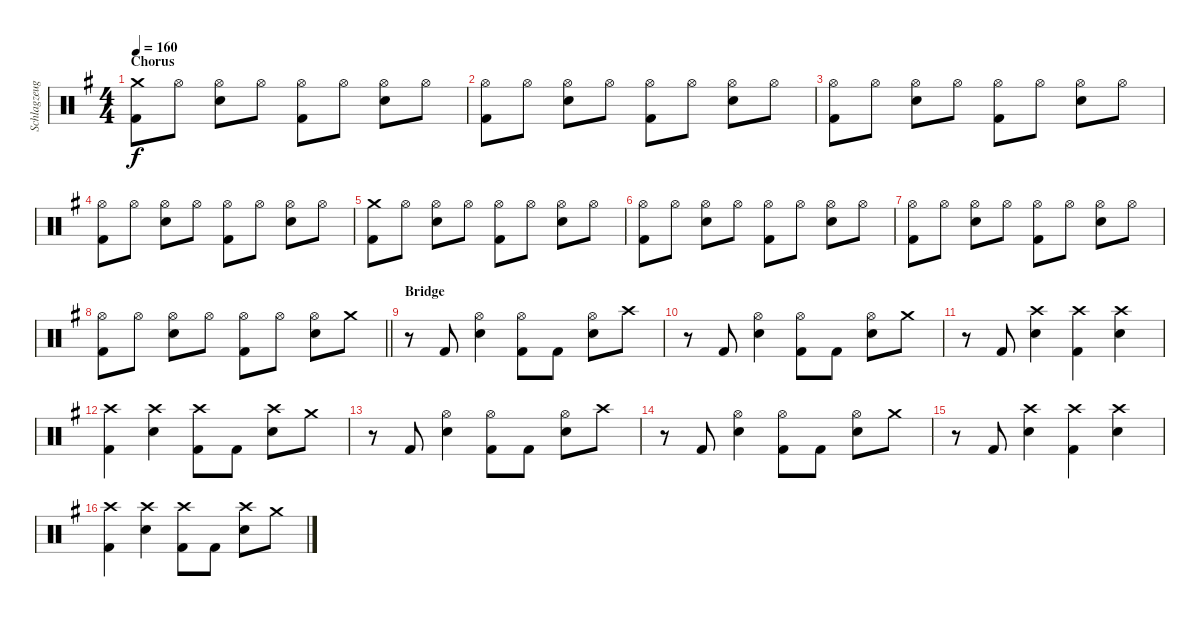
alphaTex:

\track ("Schlagzeug" "Schlagzeug") {instrument percussion}
\staff {score}
\articulation defaults
\ts (4 4)
\section ("" "Chorus")
\tempo 160
\clef neutral
\ks g
("Crash medium (hit)" "Kick (hit) 2").8{dy f} "Hi-Hat (open)".8 ("Hi-Hat (open)" "Snare (hit) 2").8 "Hi-Hat (open)".8 ("Hi-Hat (open)" "Kick (hit) 2").8 "Hi-Hat (open)".8 ("Hi-Hat (open)" "Snare (hit) 2").8 "Hi-Hat (open)".8 |
("Hi-Hat (open)" "Kick (hit) 2").8 "Hi-Hat (open)".8 ("Hi-Hat (open)" "Snare (hit) 2").8 "Hi-Hat (open)".8 ("Hi-Hat (open)" "Kick (hit) 2").8 "Hi-Hat (open)".8 ("Hi-Hat (open)" "Snare (hit) 2").8 "Hi-Hat (open)".8 |
("Hi-Hat (open)" "Kick (hit) 2").8 "Hi-Hat (open)".8 ("Hi-Hat (open)" "Snare (hit) 2").8 "Hi-Hat (open)".8 ("Hi-Hat (open)" "Kick (hit) 2").8 "Hi-Hat (open)".8 ("Hi-Hat (open)" "Snare (hit) 2").8 "Hi-Hat (open)".8 |
("Hi-Hat (open)" "Kick (hit) 2").8 "Hi-Hat (open)".8 ("Hi-Hat (open)" "Snare (hit) 2").8 "Hi-Hat (open)".8 ("Hi-Hat (open)" "Kick (hit) 2").8 "Hi-Hat (open)".8 ("Hi-Hat (open)" "Snare (hit) 2").8 "Hi-Hat (open)".8 |
("Crash medium (hit)" "Kick (hit) 2").8 "Hi-Hat (open)".8 ("Hi-Hat (open)" "Snare (hit) 2").8 "Hi-Hat (open)".8 ("Hi-Hat (open)" "Kick (hit) 2").8 "Hi-Hat (open)".8 ("Hi-Hat (open)" "Snare (hit) 2").8 "Hi-Hat (open)".8 |
("Hi-Hat (open)" "Kick (hit) 2").8 "Hi-Hat (open)".8 ("Hi-Hat (open)" "Snare (hit) 2").8 "Hi-Hat (open)".8 ("Hi-Hat (open)" "Kick (hit) 2").8 "Hi-Hat (open)".8 ("Hi-Hat (open)" "Snare (hit) 2").8 "Hi-Hat (open)".8 |
("Hi-Hat (open)" "Kick (hit) 2").8 "Hi-Hat (open)".8 ("Hi-Hat (open)" "Snare (hit) 2").8 "Hi-Hat (open)".8 ("Hi-Hat (open)" "Kick (hit) 2").8 "Hi-Hat (open)".8 ("Hi-Hat (open)" "Snare (hit) 2").8 "Hi-Hat (open)".8 |
\barLineRight lightlight
("Hi-Hat (open)" "Kick (hit) 2").8 "Hi-Hat (open)".8 ("Hi-Hat (open)" "Snare (hit) 2").8 "Hi-Hat (open)".8 ("Hi-Hat (open)" "Kick (hit) 2").8 "Hi-Hat (open)".8 ("Hi-Hat (open)" "Snare (hit) 2").8 "Crash medium (hit)".8 |
\section ("" "Bridge")
r.8 "Kick (hit) 2".8 ("Hi-Hat (open)" "Snare (hit) 2").4 ("Hi-Hat (open)" "Kick (hit) 2").8 "Kick (hit) 2".8 ("Hi-Hat (open)" "Snare (hit) 2").8 "Crash high (hit)".8 |
r.8 "Kick (hit) 2".8 ("Hi-Hat (open)" "Snare (hit) 2").4 ("Hi-Hat (open)" "Kick (hit) 2").8 "Kick (hit) 2".8 ("Hi-Hat (open)" "Snare (hit) 2").8 "Crash medium (hit)".8 |
r.8 "Kick (hit) 2".8 ("Crash high (hit)" "Snare (hit) 2").4 ("Crash high (hit)" "Kick (hit) 2").4 ("Crash high (hit)" "Snare (hit) 2").4 |
("Crash high (hit)" "Kick (hit) 2").4 ("Crash high (hit)" "Snare (hit) 2").4 ("Crash high (hit)" "Kick (hit) 2").8 "Kick (hit) 2".8 ("Crash high (hit)" "Snare (hit) 2").8 "Crash medium (hit)".8 |
r.8 "Kick (hit) 2".8 ("Hi-Hat (open)" "Snare (hit) 2").4 ("Hi-Hat (open)" "Kick (hit) 2").8 "Kick (hit) 2".8 ("Hi-Hat (open)" "Snare (hit) 2").8 "Crash high (hit)".8 |
r.8 "Kick (hit) 2".8 ("Hi-Hat (open)" "Snare (hit) 2").4 ("Hi-Hat (open)" "Kick (hit) 2").8 "Kick (hit) 2".8 ("Hi-Hat (open)" "Snare (hit) 2").8 "Crash medium (hit)".8 |
r.8 "Kick (hit) 2".8 ("Crash high (hit)" "Snare (hit) 2").4 ("Crash high (hit)" "Kick (hit) 2").4 ("Crash high (hit)" "Snare (hit) 2").4 |
("Crash high (hit)" "Kick (hit) 2").4 ("Crash high (hit)" "Snare (hit) 2").4 ("Crash high (hit)" "Kick (hit) 2").8 "Kick (hit) 2".8 ("Crash high (hit)" "Snare (hit) 2").8 "Crash medium (hit)".8
